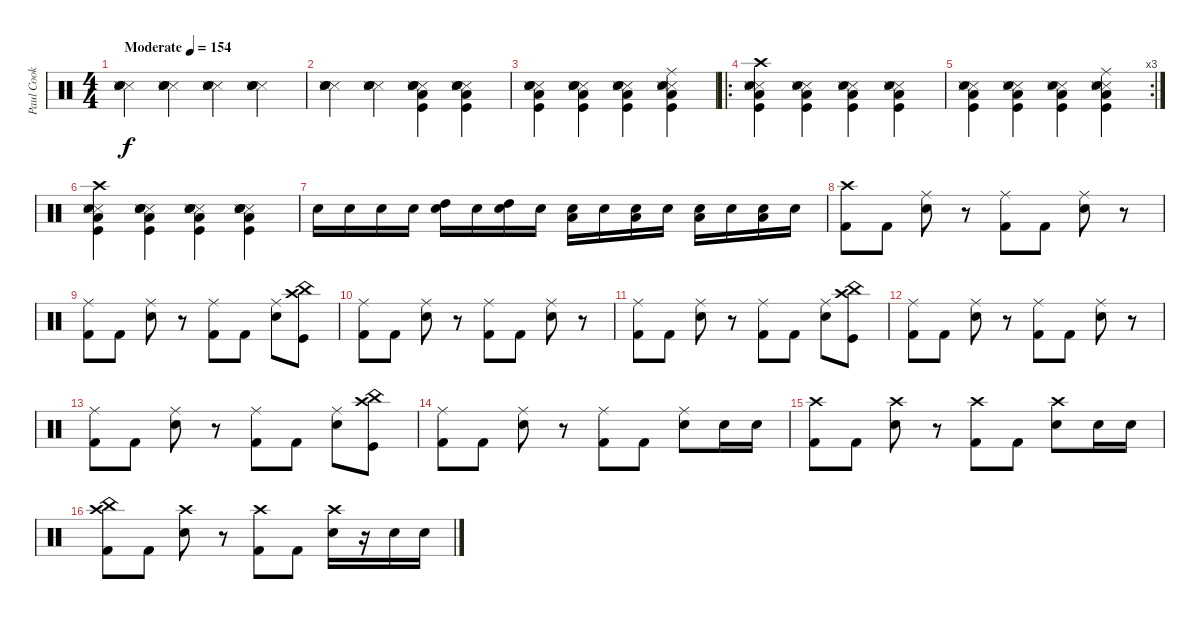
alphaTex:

\track ("Paul Cook" "Paul Cook") {instrument percussion}
\staff {score}
\articulation defaults
\ts (4 4)
\tempo (154 "Moderate")
\clef neutral
\ks c
("Metronome (hit)" "Snare (side stick) 3" "Hand Clap (hit)" "Hand Clap (hit)").4{dy f} ("Metronome (hit)" "Snare (side stick) 3" "Hand Clap (hit)" "Hand Clap (hit)").4 ("Metronome (hit)" "Snare (side stick) 3" "Hand Clap (hit)" "Hand Clap (hit)").4 ("Metronome (hit)" "Snare (side stick) 3" "Hand Clap (hit)" "Hand Clap (hit)").4 |
("Metronome (hit)" "Snare (side stick) 3" "Hand Clap (hit)" "Hand Clap (hit)").4 ("Metronome (hit)" "Snare (side stick) 3" "Hand Clap (hit)" "Hand Clap (hit)").4 ("Kick (hit)" "Low Floor Tom (hit)" "Metronome (hit)" "Snare (side stick) 3" "Hand Clap (hit)" "Hand Clap (hit)").4 ("Kick (hit)" "Low Floor Tom (hit)" "Metronome (hit)" "Snare (side stick) 3" "Hand Clap (hit)" "Hand Clap (hit)").4 |
("Kick (hit)" "Low Floor Tom (hit)" "Metronome (hit)" "Snare (side stick) 3" "Hand Clap (hit)" "Hand Clap (hit)").4 ("Kick (hit)" "Low Floor Tom (hit)" "Metronome (hit)" "Snare (side stick) 3" "Hand Clap (hit)" "Hand Clap (hit)").4 ("Kick (hit)" "Low Floor Tom (hit)" "Metronome (hit)" "Snare (side stick) 3" "Hand Clap (hit)" "Hand Clap (hit)").4 ("Kick (hit)" "Low Floor Tom (hit)" "Metronome (hit)" "Snare (side stick) 3" "Ride (middle)" "Hand Clap (hit)").4 |
\ro
("Kick (hit)" "Low Floor Tom (hit)" "Metronome (hit)" "Snare (side stick) 3" "Crash high (hit)" "Hand Clap (hit)").4 ("Kick (hit)" "Low Floor Tom (hit)" "Metronome (hit)" "Snare (side stick) 3" "Hand Clap (hit)").4 ("Kick (hit)" "Low Floor Tom (hit)" "Metronome (hit)" "Snare (side stick) 3" "Hand Clap (hit)").4 ("Kick (hit)" "Low Floor Tom (hit)" "Metronome (hit)" "Snare (side stick) 3" "Hand Clap (hit)").4 |
\rc 3
("Kick (hit)" "Low Floor Tom (hit)" "Metronome (hit)" "Snare (side stick) 3" "Hand Clap (hit)").4 ("Kick (hit)" "Low Floor Tom (hit)" "Metronome (hit)" "Snare (side stick) 3" "Hand Clap (hit)").4 ("Kick (hit)" "Low Floor Tom (hit)" "Metronome (hit)" "Snare (side stick) 3" "Hand Clap (hit)").4 ("Kick (hit)" "Low Floor Tom (hit)" "Metronome (hit)" "Snare (side stick) 3" "Ride (middle)" "Hand Clap (hit)").4 |
("Kick (hit)" "Low Floor Tom (hit)" "Metronome (hit)" "Snare (side stick) 3" "Hand Clap (hit)" "Crash high (hit)").4 ("Kick (hit)" "Low Floor Tom (hit)" "Metronome (hit)" "Snare (side stick) 3" "Hand Clap (hit)" "Hand Clap (hit)").4 ("Kick (hit)" "Low Floor Tom (hit)" "Metronome (hit)" "Snare (side stick) 3" "Hand Clap (hit)" "Hand Clap (hit)").4 ("Kick (hit)" "Low Floor Tom (hit)" "Metronome (hit)" "Snare (side stick) 3" "Hand Clap (hit)" "Hand Clap (hit)").4 |
"Snare (hit) 2".16 "Snare (hit) 2".16 "Snare (hit) 2".16 "Snare (hit) 2".16 ("Snare (hit) 2" "High Tom (hit)").16 "Snare (hit) 2".16 ("Snare (hit) 2" "High Tom (hit)").16 "Snare (hit) 2".16 ("Snare (hit) 2" "Low Tom (hit)").16 "Snare (hit) 2".16 ("Snare (hit) 2" "Low Tom (hit)").16 "Snare (hit) 2".16 ("Low Floor Tom (hit)" "Snare (hit) 2").16 "Snare (hit) 2".16 ("Snare (hit) 2" "Low Floor Tom (hit)").16 "Snare (hit) 2".16 |
("Crash high (hit)" "Kick (hit) 2").8 "Kick (hit) 2".8 ("Ride (middle)" "Electric Snare (hit)").8 r.8 ("Ride (middle)" "Kick (hit) 2").8 "Kick (hit) 2".8 ("Ride (middle)" "Electric Snare (hit)").8 r.8 |
("Ride (middle)" "Kick (hit) 2").8 "Kick (hit) 2".8 ("Ride (middle)" "Electric Snare (hit)").8 r.8 ("Ride (middle)" "Kick (hit) 2").8 "Kick (hit) 2".8 ("Ride (middle)" "Electric Snare (hit)").8 ("Kick (hit)" "Crash high (hit)" "China (hit)").8 |
("Ride (middle)" "Kick (hit) 2").8 "Kick (hit) 2".8 ("Ride (middle)" "Electric Snare (hit)").8 r.8 ("Ride (middle)" "Kick (hit) 2").8 "Kick (hit) 2".8 ("Ride (middle)" "Electric Snare (hit)").8 r.8 |
("Ride (middle)" "Kick (hit) 2").8 "Kick (hit) 2".8 ("Ride (middle)" "Electric Snare (hit)").8 r.8 ("Ride (middle)" "Kick (hit) 2").8 "Kick (hit) 2".8 ("Ride (middle)" "Electric Snare (hit)").8 ("Kick (hit)" "Crash high (hit)" "China (hit)").8 |
("Ride (middle)" "Kick (hit) 2").8 "Kick (hit) 2".8 ("Ride (middle)" "Electric Snare (hit)").8 r.8 ("Ride (middle)" "Kick (hit) 2").8 "Kick (hit) 2".8 ("Ride (middle)" "Electric Snare (hit)").8 r.8 |
("Ride (middle)" "Kick (hit) 2").8 "Kick (hit) 2".8 ("Ride (middle)" "Electric Snare (hit)").8 r.8 ("Ride (middle)" "Kick (hit) 2").8 "Kick (hit) 2".8 ("Ride (middle)" "Electric Snare (hit)").8 ("Kick (hit)" "Crash high (hit)" "China (hit)").8 |
("Ride (middle)" "Kick (hit) 2").8 "Kick (hit) 2".8 ("Ride (middle)" "Electric Snare (hit)").8 r.8 ("Ride (middle)" "Kick (hit) 2").8 "Kick (hit) 2".8 ("Ride (middle)" "Electric Snare (hit)").8 "Snare (hit) 2".16 "Snare (hit) 2".16 |
("Crash high (hit)" "Kick (hit) 2").8 "Kick (hit) 2".8 ("Crash high (hit)" "Electric Snare (hit)").8 r.8 ("Crash high (hit)" "Kick (hit) 2").8 "Kick (hit) 2".8 ("Crash high (hit)" "Electric Snare (hit)").8 "Snare (hit) 2".16 "Snare (hit) 2".16 |
("Crash high (hit)" "China (hit)" "Kick (hit) 2").8 "Kick (hit) 2".8 ("Crash high (hit)" "Electric Snare (hit)").8 r.8 ("Crash high (hit)" "Kick (hit) 2").8 "Kick (hit) 2".8 ("Crash high (hit)" "Electric Snare (hit)").16 r.16 "Snare (hit) 2".16 "Snare (hit) 2".16
